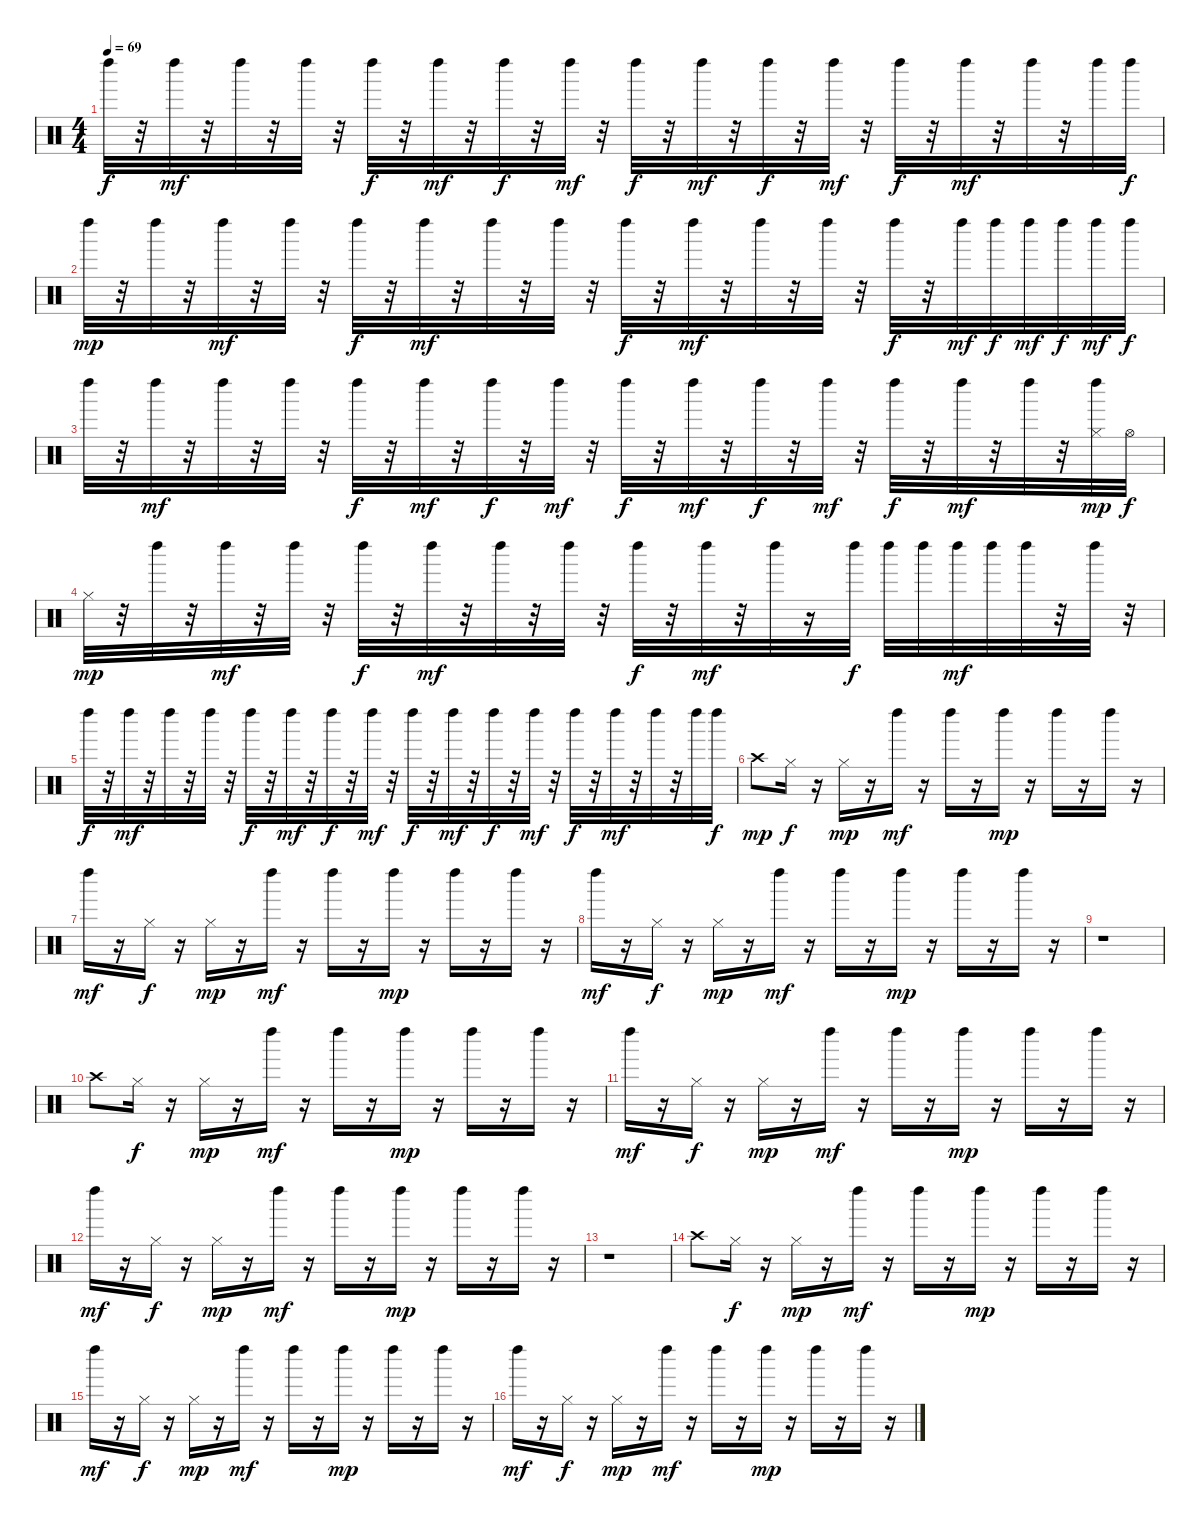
\track "" {instrument percussion}
\staff {score}
\articulation defaults
\ts (4 4)
\tempo 69
\clef neutral
\ks c "Left Maraca (hit)".32{dy f}
r.32 "Left Maraca (hit)".32{dy mf} r.32 "Left Maraca (hit)".32 r.32 "Left Maraca (hit)".32 r.32 "Left Maraca (hit)".32{dy f} r.32 "Left Maraca (hit)".32{dy mf} r.32 "Left Maraca (hit)".32{dy f} r.32 "Left Maraca (hit)".32{dy mf} r.32 "Left Maraca (hit)".32{dy f} r.32 "Left Maraca (hit)".32{dy mf} r.32 "Left Maraca (hit)".32{dy f} r.32 "Left Maraca (hit)".32{dy mf} r.32 "Left Maraca (hit)".32{dy f} r.32 "Left Maraca (hit)".32{dy mf} r.32 "Left Maraca (hit)".32 r.32 "Left Maraca (hit)".32 "Left Maraca (hit)".32{dy f} |
"Left Maraca (hit)".32{dy mp} r.32 "Left Maraca (hit)".32 r.32 "Left Maraca (hit)".32{dy mf} r.32 "Left Maraca (hit)".32 r.32 "Left Maraca (hit)".32{dy f} r.32 "Left Maraca (hit)".32{dy mf} r.32 "Left Maraca (hit)".32 r.32 "Left Maraca (hit)".32 r.32 "Left Maraca (hit)".32{dy f} r.32 "Left Maraca (hit)".32{dy mf} r.32 "Left Maraca (hit)".32 r.32 "Left Maraca (hit)".32 r.32 "Left Maraca (hit)".32{dy f} r.32 "Left Maraca (hit)".32{dy mf} "Left Maraca (hit)".32{dy f} "Left Maraca (hit)".32{dy mf} "Left Maraca (hit)".32{dy f} "Left Maraca (hit)".32{dy mf} "Left Maraca (hit)".32{dy f} |
"Left Maraca (hit)".32 r.32 "Left Maraca (hit)".32{dy mf} r.32 "Left Maraca (hit)".32 r.32 "Left Maraca (hit)".32 r.32 "Left Maraca (hit)".32{dy f} r.32 "Left Maraca (hit)".32{dy mf} r.32 "Left Maraca (hit)".32{dy f} r.32 "Left Maraca (hit)".32{dy mf} r.32 "Left Maraca (hit)".32{dy f} r.32 "Left Maraca (hit)".32{dy mf} r.32 "Left Maraca (hit)".32{dy f} r.32 "Left Maraca (hit)".32{dy mf} r.32 "Left Maraca (hit)".32{dy f} r.32 "Left Maraca (hit)".32{dy mf} r.32 "Left Maraca (hit)".32 r.32 ("Left Maraca (hit)" "Hi-Hat (closed)").32{dy mp} "Hi-Hat (open)".32{dy f} |
"Hi-Hat (closed)".32{dy mp} r.32 "Left Maraca (hit)".32 r.32 "Left Maraca (hit)".32{dy mf} r.32 "Left Maraca (hit)".32 r.32 "Left Maraca (hit)".32{dy f} r.32 "Left Maraca (hit)".32{dy mf} r.32 "Left Maraca (hit)".32 r.32 "Left Maraca (hit)".32 r.32 "Left Maraca (hit)".32{dy f} r.32 "Left Maraca (hit)".32{dy mf} r.32 "Left Maraca (hit)".32 r.16 "Left Maraca (hit)".32{dy f} "Left Maraca (hit)".32 "Left Maraca (hit)".32 "Left Maraca (hit)".32{dy mf} "Left Maraca (hit)".32 "Left Maraca (hit)".32 r.32 "Left Maraca (hit)".32 r.32 |
"Left Maraca (hit)".32{dy f} r.32 "Left Maraca (hit)".32{dy mf} r.32 "Left Maraca (hit)".32 r.32 "Left Maraca (hit)".32 r.32 "Left Maraca (hit)".32{dy f} r.32 "Left Maraca (hit)".32{dy mf} r.32 "Left Maraca (hit)".32{dy f} r.32 "Left Maraca (hit)".32{dy mf} r.32 "Left Maraca (hit)".32{dy f} r.32 "Left Maraca (hit)".32{dy mf} r.32 "Left Maraca (hit)".32{dy f} r.32 "Left Maraca (hit)".32{dy mf} r.32 "Left Maraca (hit)".32{dy f} r.32 "Left Maraca (hit)".32{dy mf} r.32 "Left Maraca (hit)".32 r.32 "Left Maraca (hit)".32 "Left Maraca (hit)".32{dy f} |
"Crash high (hit)".8{dy mp} "Hi-Hat (closed)".16{dy f} r.16 "Hi-Hat (closed)".16{dy mp} r.16 "Left Maraca (hit)".16{dy mf} r.16 "Left Maraca (hit)".16 r.16 "Left Maraca (hit)".16{dy mp} r.16 "Left Maraca (hit)".16 r.16 "Left Maraca (hit)".16 r.16 |
"Left Maraca (hit)".16{dy mf} r.16 "Hi-Hat (closed)".16{dy f} r.16 "Hi-Hat (closed)".16{dy mp} r.16 "Left Maraca (hit)".16{dy mf} r.16 "Left Maraca (hit)".16 r.16 "Left Maraca (hit)".16{dy mp} r.16 "Left Maraca (hit)".16 r.16 "Left Maraca (hit)".16 r.16 |
"Left Maraca (hit)".16{dy mf} r.16 "Hi-Hat (closed)".16{dy f} r.16 "Hi-Hat (closed)".16{dy mp} r.16 "Left Maraca (hit)".16{dy mf} r.16 "Left Maraca (hit)".16 r.16 "Left Maraca (hit)".16{dy mp} r.16 "Left Maraca (hit)".16 r.16 "Left Maraca (hit)".16 r.16 |
r.1 |
"Crash high (hit)".8 "Hi-Hat (closed)".16{dy f} r.16 "Hi-Hat (closed)".16{dy mp} r.16 "Left Maraca (hit)".16{dy mf} r.16 "Left Maraca (hit)".16 r.16 "Left Maraca (hit)".16{dy mp} r.16 "Left Maraca (hit)".16 r.16 "Left Maraca (hit)".16 r.16 |
"Left Maraca (hit)".16{dy mf} r.16 "Hi-Hat (closed)".16{dy f} r.16 "Hi-Hat (closed)".16{dy mp} r.16 "Left Maraca (hit)".16{dy mf} r.16 "Left Maraca (hit)".16 r.16 "Left Maraca (hit)".16{dy mp} r.16 "Left Maraca (hit)".16 r.16 "Left Maraca (hit)".16 r.16 |
"Left Maraca (hit)".16{dy mf} r.16 "Hi-Hat (closed)".16{dy f} r.16 "Hi-Hat (closed)".16{dy mp} r.16 "Left Maraca (hit)".16{dy mf} r.16 "Left Maraca (hit)".16 r.16 "Left Maraca (hit)".16{dy mp} r.16 "Left Maraca (hit)".16 r.16 "Left Maraca (hit)".16 r.16 |
r.1 |
"Crash high (hit)".8 "Hi-Hat (closed)".16{dy f} r.16 "Hi-Hat (closed)".16{dy mp} r.16 "Left Maraca (hit)".16{dy mf} r.16 "Left Maraca (hit)".16 r.16 "Left Maraca (hit)".16{dy mp} r.16 "Left Maraca (hit)".16 r.16 "Left Maraca (hit)".16 r.16 |
"Left Maraca (hit)".16{dy mf volume 16 balance 8} r.16 "Hi-Hat (closed)".16{dy f} r.16 "Hi-Hat (closed)".16{dy mp} r.16 "Left Maraca (hit)".16{dy mf} r.16 "Left Maraca (hit)".16 r.16 "Left Maraca (hit)".16{dy mp} r.16 "Left Maraca (hit)".16 r.16 "Left Maraca (hit)".16 r.16 |
"Left Maraca (hit)".16{dy mf} r.16 "Hi-Hat (closed)".16{dy f} r.16 "Hi-Hat (closed)".16{dy mp} r.16 "Left Maraca (hit)".16{dy mf} r.16 "Left Maraca (hit)".16 r.16 "Left Maraca (hit)".16{dy mp} r.16 "Left Maraca (hit)".16 r.16 "Left Maraca (hit)".16 r.16
